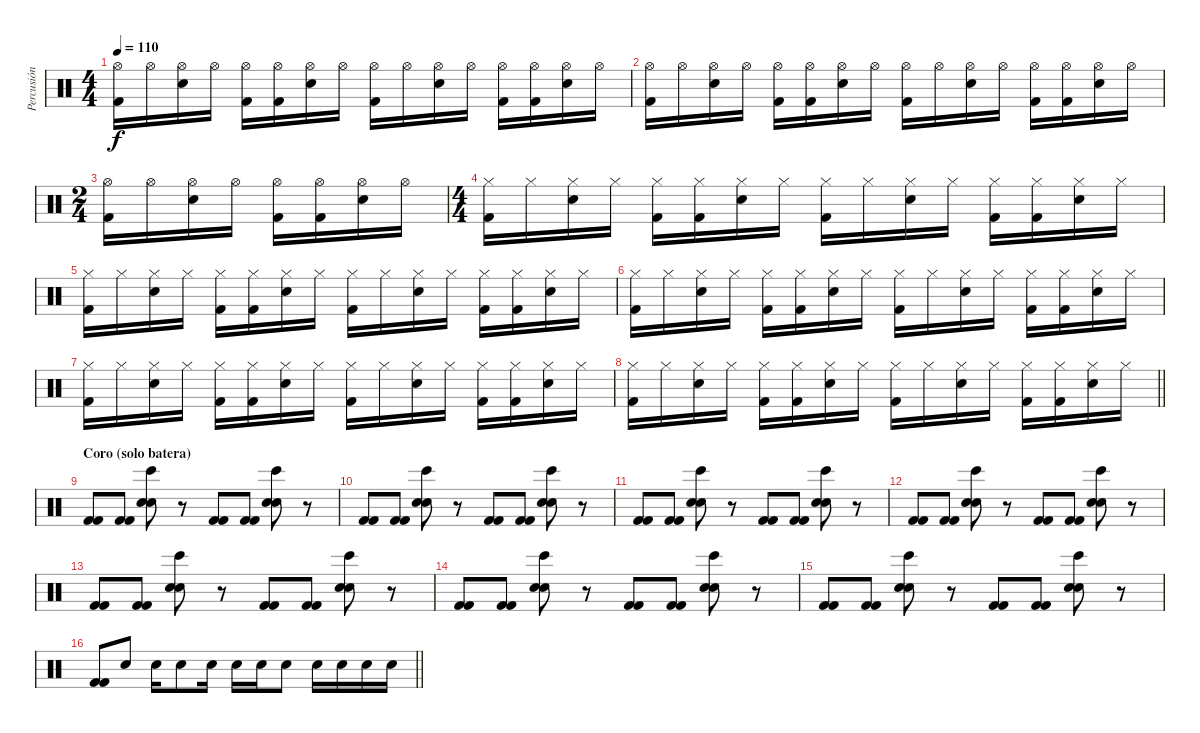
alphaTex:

\track ("Percusión" "Percusión") {instrument percussion}
\staff {score}
\articulation defaults
\ts (4 4)
\tempo 110
\clef neutral
\ks c
("Hi-Hat (open)" "Kick (hit) 2").16{dy f} "Hi-Hat (open)".16 ("Hi-Hat (open)" "Snare (hit) 2").16 "Hi-Hat (open)".16 ("Hi-Hat (open)" "Kick (hit) 2").16 ("Hi-Hat (open)" "Kick (hit) 2").16 ("Hi-Hat (open)" "Snare (hit) 2").16 "Hi-Hat (open)".16 ("Hi-Hat (open)" "Kick (hit) 2").16 "Hi-Hat (open)".16 ("Hi-Hat (open)" "Snare (hit) 2").16 "Hi-Hat (open)".16 ("Hi-Hat (open)" "Kick (hit) 2").16 ("Hi-Hat (open)" "Kick (hit) 2").16 ("Hi-Hat (open)" "Snare (hit) 2").16 "Hi-Hat (open)".16 |
("Hi-Hat (open)" "Kick (hit) 2").16 "Hi-Hat (open)".16 ("Hi-Hat (open)" "Snare (hit) 2").16 "Hi-Hat (open)".16 ("Hi-Hat (open)" "Kick (hit) 2").16 ("Hi-Hat (open)" "Kick (hit) 2").16 ("Hi-Hat (open)" "Snare (hit) 2").16 "Hi-Hat (open)".16 ("Hi-Hat (open)" "Kick (hit) 2").16 "Hi-Hat (open)".16 ("Hi-Hat (open)" "Snare (hit) 2").16 "Hi-Hat (open)".16 ("Hi-Hat (open)" "Kick (hit) 2").16 ("Hi-Hat (open)" "Kick (hit) 2").16 ("Hi-Hat (open)" "Snare (hit) 2").16 "Hi-Hat (open)".16 |
\ts (2 4)
("Hi-Hat (open)" "Kick (hit) 2").16 "Hi-Hat (open)".16 ("Hi-Hat (open)" "Snare (hit) 2").16 "Hi-Hat (open)".16 ("Hi-Hat (open)" "Kick (hit) 2").16 ("Hi-Hat (open)" "Kick (hit) 2").16 ("Hi-Hat (open)" "Snare (hit) 2").16 "Hi-Hat (open)".16 |
\ts (4 4)
("Hi-Hat (closed)" "Kick (hit) 2").16 "Hi-Hat (closed)".16 ("Hi-Hat (closed)" "Snare (hit) 2").16 "Hi-Hat (closed)".16 ("Hi-Hat (closed)" "Kick (hit) 2").16 ("Hi-Hat (closed)" "Kick (hit) 2").16 ("Hi-Hat (closed)" "Snare (hit) 2").16 "Hi-Hat (closed)".16 ("Hi-Hat (closed)" "Kick (hit) 2").16 "Hi-Hat (closed)".16 ("Hi-Hat (closed)" "Snare (hit) 2").16 "Hi-Hat (closed)".16 ("Hi-Hat (closed)" "Kick (hit) 2").16 ("Hi-Hat (closed)" "Kick (hit) 2").16 ("Hi-Hat (closed)" "Snare (hit) 2").16 "Hi-Hat (closed)".16 |
("Hi-Hat (closed)" "Kick (hit) 2").16 "Hi-Hat (closed)".16 ("Hi-Hat (closed)" "Snare (hit) 2").16 "Hi-Hat (closed)".16 ("Hi-Hat (closed)" "Kick (hit) 2").16 ("Hi-Hat (closed)" "Kick (hit) 2").16 ("Hi-Hat (closed)" "Snare (hit) 2").16 "Hi-Hat (closed)".16 ("Hi-Hat (closed)" "Kick (hit) 2").16 "Hi-Hat (closed)".16 ("Hi-Hat (closed)" "Snare (hit) 2").16 "Hi-Hat (closed)".16 ("Hi-Hat (closed)" "Kick (hit) 2").16 ("Hi-Hat (closed)" "Kick (hit) 2").16 ("Hi-Hat (closed)" "Snare (hit) 2").16 "Hi-Hat (closed)".16 |
("Hi-Hat (closed)" "Kick (hit) 2").16 "Hi-Hat (closed)".16 ("Hi-Hat (closed)" "Snare (hit) 2").16 "Hi-Hat (closed)".16 ("Hi-Hat (closed)" "Kick (hit) 2").16 ("Hi-Hat (closed)" "Kick (hit) 2").16 ("Hi-Hat (closed)" "Snare (hit) 2").16 "Hi-Hat (closed)".16 ("Hi-Hat (closed)" "Kick (hit) 2").16 "Hi-Hat (closed)".16 ("Hi-Hat (closed)" "Snare (hit) 2").16 "Hi-Hat (closed)".16 ("Hi-Hat (closed)" "Kick (hit) 2").16 ("Hi-Hat (closed)" "Kick (hit) 2").16 ("Hi-Hat (closed)" "Snare (hit) 2").16 "Hi-Hat (closed)".16 |
("Hi-Hat (closed)" "Kick (hit) 2").16 "Hi-Hat (closed)".16 ("Hi-Hat (closed)" "Snare (hit) 2").16 "Hi-Hat (closed)".16 ("Hi-Hat (closed)" "Kick (hit) 2").16 ("Hi-Hat (closed)" "Kick (hit) 2").16 ("Hi-Hat (closed)" "Snare (hit) 2").16 "Hi-Hat (closed)".16 ("Hi-Hat (closed)" "Kick (hit) 2").16 "Hi-Hat (closed)".16 ("Hi-Hat (closed)" "Snare (hit) 2").16 "Hi-Hat (closed)".16 ("Hi-Hat (closed)" "Kick (hit) 2").16 ("Hi-Hat (closed)" "Kick (hit) 2").16 ("Hi-Hat (closed)" "Snare (hit) 2").16 "Hi-Hat (closed)".16 |
\barLineRight lightlight
("Hi-Hat (closed)" "Kick (hit) 2").16 "Hi-Hat (closed)".16 ("Hi-Hat (closed)" "Snare (hit) 2").16 "Hi-Hat (closed)".16 ("Hi-Hat (closed)" "Kick (hit) 2").16 ("Hi-Hat (closed)" "Kick (hit) 2").16 ("Hi-Hat (closed)" "Snare (hit) 2").16 "Hi-Hat (closed)".16 ("Hi-Hat (closed)" "Kick (hit) 2").16 "Hi-Hat (closed)".16 ("Hi-Hat (closed)" "Snare (hit) 2").16 "Hi-Hat (closed)".16 ("Hi-Hat (closed)" "Kick (hit) 2").16 ("Hi-Hat (closed)" "Kick (hit) 2").16 ("Hi-Hat (closed)" "Snare (hit) 2").16 "Hi-Hat (closed)".16 |
\section ("" "Coro (solo batera)")
("Kick (hit) 2" "Kick (hit) 2").8 ("Kick (hit) 2" "Kick (hit) 2").8 ("Bongo High (hit)" "Snare (hit) 2" "Snare (hit) 2").8 r.8 ("Kick (hit) 2" "Kick (hit) 2").8 ("Kick (hit) 2" "Kick (hit) 2").8 ("Bongo High (hit)" "Snare (hit) 2" "Snare (hit) 2").8 r.8 |
("Kick (hit) 2" "Kick (hit) 2").8 ("Kick (hit) 2" "Kick (hit) 2").8 ("Bongo High (hit)" "Snare (hit) 2" "Snare (hit) 2").8 r.8 ("Kick (hit) 2" "Kick (hit) 2").8 ("Kick (hit) 2" "Kick (hit) 2").8 ("Bongo High (hit)" "Snare (hit) 2" "Snare (hit) 2").8 r.8 |
("Kick (hit) 2" "Kick (hit) 2").8 ("Kick (hit) 2" "Kick (hit) 2").8 ("Bongo High (hit)" "Snare (hit) 2" "Snare (hit) 2").8 r.8 ("Kick (hit) 2" "Kick (hit) 2").8 ("Kick (hit) 2" "Kick (hit) 2").8 ("Bongo High (hit)" "Snare (hit) 2" "Snare (hit) 2").8 r.8 |
("Kick (hit) 2" "Kick (hit) 2").8 ("Kick (hit) 2" "Kick (hit) 2").8 ("Bongo High (hit)" "Snare (hit) 2" "Snare (hit) 2").8 r.8 ("Kick (hit) 2" "Kick (hit) 2").8 ("Kick (hit) 2" "Kick (hit) 2").8 ("Bongo High (hit)" "Snare (hit) 2" "Snare (hit) 2").8 r.8 |
("Kick (hit) 2" "Kick (hit) 2").8 ("Kick (hit) 2" "Kick (hit) 2").8 ("Bongo High (hit)" "Snare (hit) 2" "Snare (hit) 2").8 r.8 ("Kick (hit) 2" "Kick (hit) 2").8 ("Kick (hit) 2" "Kick (hit) 2").8 ("Bongo High (hit)" "Snare (hit) 2" "Snare (hit) 2").8 r.8 |
("Kick (hit) 2" "Kick (hit) 2").8 ("Kick (hit) 2" "Kick (hit) 2").8 ("Bongo High (hit)" "Snare (hit) 2" "Snare (hit) 2").8 r.8 ("Kick (hit) 2" "Kick (hit) 2").8 ("Kick (hit) 2" "Kick (hit) 2").8 ("Bongo High (hit)" "Snare (hit) 2" "Snare (hit) 2").8 r.8 |
("Kick (hit) 2" "Kick (hit) 2").8 ("Kick (hit) 2" "Kick (hit) 2").8 ("Bongo High (hit)" "Snare (hit) 2" "Snare (hit) 2").8 r.8 ("Kick (hit) 2" "Kick (hit) 2").8 ("Kick (hit) 2" "Kick (hit) 2").8 ("Bongo High (hit)" "Snare (hit) 2" "Snare (hit) 2").8 r.8 |
\barLineRight lightlight
("Kick (hit) 2" "Kick (hit) 2").8 "Snare (hit) 2".8 "Snare (hit) 2".16 "Snare (hit) 2".8 "Snare (hit) 2".16 "Snare (hit) 2".16 "Snare (hit) 2".16 "Snare (hit) 2".8 "Snare (hit) 2".16 "Snare (hit) 2".16 "Snare (hit) 2".16 "Snare (hit) 2".16
